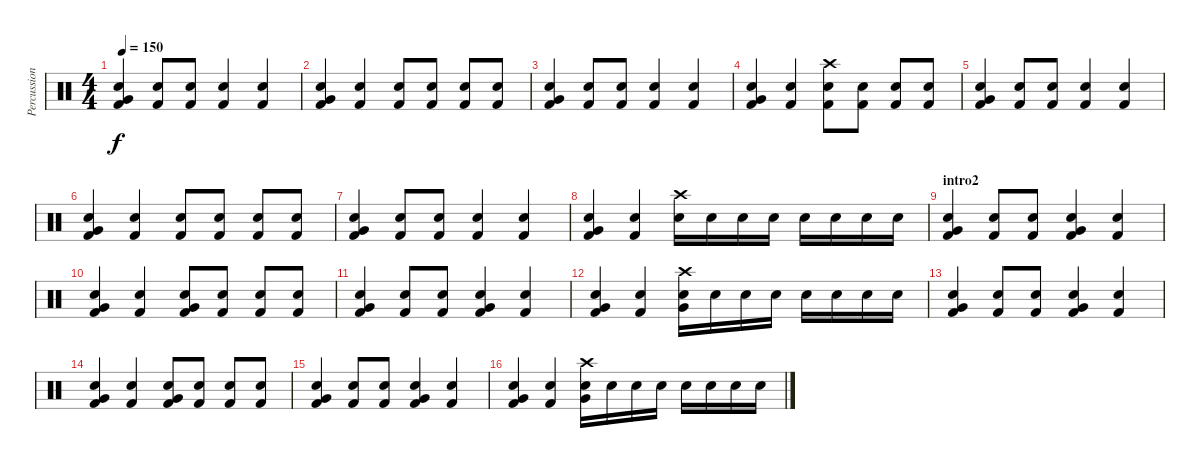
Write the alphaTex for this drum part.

\track ("Percussion" "Percussion") {instrument percussion}
\staff {score}
\articulation defaults
\ts (4 4)
\tempo 150
\clef neutral
\ks c
("Kick (hit) 2" "Snare (hit) 2" "Very Low Tom (hit)").4{dy f} ("Kick (hit) 2" "Snare (hit) 2").8 ("Kick (hit) 2" "Snare (hit) 2").8 ("Kick (hit) 2" "Snare (hit) 2").4 ("Kick (hit) 2" "Snare (hit) 2").4 |
("Kick (hit) 2" "Snare (hit) 2" "Very Low Tom (hit)").4 ("Kick (hit) 2" "Snare (hit) 2").4 ("Kick (hit) 2" "Snare (hit) 2").8 ("Kick (hit) 2" "Snare (hit) 2").8 ("Kick (hit) 2" "Snare (hit) 2").8 ("Kick (hit) 2" "Snare (hit) 2").8 |
("Kick (hit) 2" "Snare (hit) 2" "Very Low Tom (hit)").4 ("Kick (hit) 2" "Snare (hit) 2").8 ("Kick (hit) 2" "Snare (hit) 2").8 ("Kick (hit) 2" "Snare (hit) 2").4 ("Kick (hit) 2" "Snare (hit) 2").4 |
("Kick (hit) 2" "Snare (hit) 2" "Very Low Tom (hit)").4 ("Kick (hit) 2" "Snare (hit) 2").4 ("Kick (hit) 2" "Snare (hit) 2" "Crash high (hit)").8 ("Kick (hit) 2" "Snare (hit) 2").8 ("Kick (hit) 2" "Snare (hit) 2").8 ("Kick (hit) 2" "Snare (hit) 2").8 |
("Kick (hit) 2" "Snare (hit) 2" "Very Low Tom (hit)").4 ("Kick (hit) 2" "Snare (hit) 2").8 ("Kick (hit) 2" "Snare (hit) 2").8 ("Kick (hit) 2" "Snare (hit) 2").4 ("Kick (hit) 2" "Snare (hit) 2").4 |
("Kick (hit) 2" "Snare (hit) 2" "Very Low Tom (hit)").4 ("Kick (hit) 2" "Snare (hit) 2").4 ("Kick (hit) 2" "Snare (hit) 2").8 ("Kick (hit) 2" "Snare (hit) 2").8 ("Kick (hit) 2" "Snare (hit) 2").8 ("Kick (hit) 2" "Snare (hit) 2").8 |
("Kick (hit) 2" "Snare (hit) 2" "Very Low Tom (hit)").4 ("Kick (hit) 2" "Snare (hit) 2").8 ("Kick (hit) 2" "Snare (hit) 2").8 ("Kick (hit) 2" "Snare (hit) 2").4 ("Kick (hit) 2" "Snare (hit) 2").4 |
("Kick (hit) 2" "Snare (hit) 2" "Very Low Tom (hit)").4 ("Kick (hit) 2" "Snare (hit) 2").4 ("Snare (hit) 2" "Crash high (hit)").16 "Snare (hit) 2".16 "Snare (hit) 2".16 "Snare (hit) 2".16 "Snare (hit) 2".16 "Snare (hit) 2".16 "Snare (hit) 2".16 "Snare (hit) 2".16 |
\section ("" "intro2")
("Kick (hit) 2" "Snare (hit) 2" "Very Low Tom (hit)").4 ("Kick (hit) 2" "Snare (hit) 2").8 ("Kick (hit) 2" "Snare (hit) 2").8 ("Kick (hit) 2" "Snare (hit) 2" "Very Low Tom (hit)").4 ("Kick (hit) 2" "Snare (hit) 2").4 |
("Kick (hit) 2" "Snare (hit) 2" "Very Low Tom (hit)").4 ("Kick (hit) 2" "Snare (hit) 2").4 ("Kick (hit) 2" "Snare (hit) 2" "Very Low Tom (hit)").8 ("Kick (hit) 2" "Snare (hit) 2").8 ("Kick (hit) 2" "Snare (hit) 2").8 ("Kick (hit) 2" "Snare (hit) 2").8 |
("Kick (hit) 2" "Snare (hit) 2" "Very Low Tom (hit)").4 ("Kick (hit) 2" "Snare (hit) 2").8 ("Kick (hit) 2" "Snare (hit) 2").8 ("Kick (hit) 2" "Snare (hit) 2" "Very Low Tom (hit)").4 ("Kick (hit) 2" "Snare (hit) 2").4 |
("Kick (hit) 2" "Snare (hit) 2" "Very Low Tom (hit)").4 ("Kick (hit) 2" "Snare (hit) 2").4 ("Very Low Tom (hit)" "Snare (hit) 2" "Crash high (hit)").16 "Snare (hit) 2".16 "Snare (hit) 2".16 "Snare (hit) 2".16 "Snare (hit) 2".16 "Snare (hit) 2".16 "Snare (hit) 2".16 "Snare (hit) 2".16 |
("Kick (hit) 2" "Snare (hit) 2" "Very Low Tom (hit)").4 ("Kick (hit) 2" "Snare (hit) 2").8 ("Kick (hit) 2" "Snare (hit) 2").8 ("Kick (hit) 2" "Snare (hit) 2" "Very Low Tom (hit)").4 ("Kick (hit) 2" "Snare (hit) 2").4 |
("Kick (hit) 2" "Snare (hit) 2" "Very Low Tom (hit)").4 ("Kick (hit) 2" "Snare (hit) 2").4 ("Kick (hit) 2" "Snare (hit) 2" "Very Low Tom (hit)").8 ("Kick (hit) 2" "Snare (hit) 2").8 ("Kick (hit) 2" "Snare (hit) 2").8 ("Kick (hit) 2" "Snare (hit) 2").8 |
("Kick (hit) 2" "Snare (hit) 2" "Very Low Tom (hit)").4 ("Kick (hit) 2" "Snare (hit) 2").8 ("Kick (hit) 2" "Snare (hit) 2").8 ("Kick (hit) 2" "Snare (hit) 2" "Very Low Tom (hit)").4 ("Kick (hit) 2" "Snare (hit) 2").4 |
("Kick (hit) 2" "Snare (hit) 2" "Very Low Tom (hit)").4 ("Kick (hit) 2" "Snare (hit) 2").4 ("Very Low Tom (hit)" "Snare (hit) 2" "Crash high (hit)").16 "Snare (hit) 2".16 "Snare (hit) 2".16 "Snare (hit) 2".16 "Snare (hit) 2".16 "Snare (hit) 2".16 "Snare (hit) 2".16 "Snare (hit) 2".16
